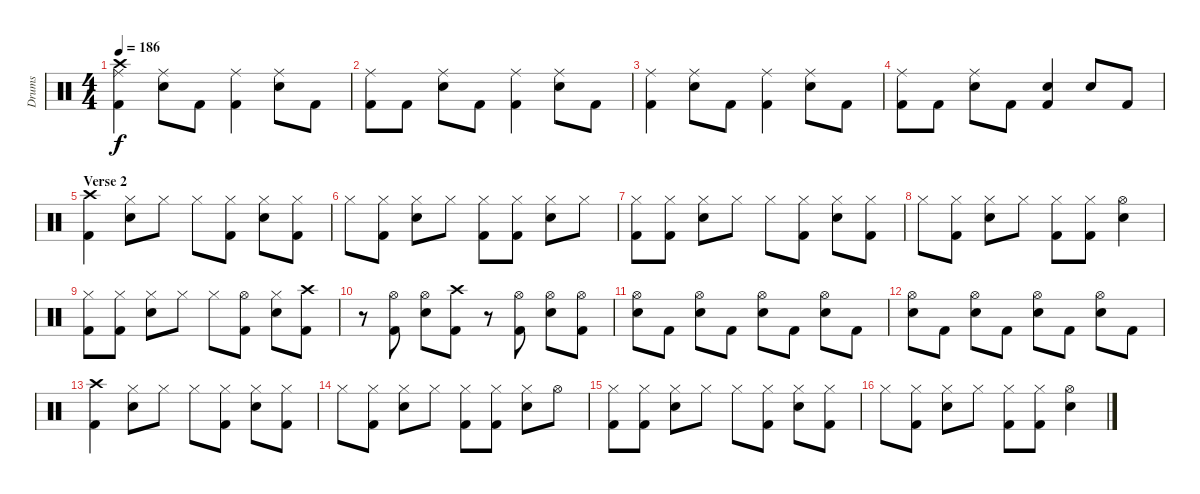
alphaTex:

\track ("Drums" "Drums") {instrument percussion}
\staff {score}
\articulation defaults
\ts (4 4)
\tempo 186
\clef neutral
\ks c
("Crash high (hit)" "Ride (middle)" "Kick (hit) 2").4{dy f} ("Ride (middle)" "Snare (hit) 2").8 "Kick (hit) 2".8 ("Ride (middle)" "Kick (hit) 2").4 ("Ride (middle)" "Snare (hit) 2").8 "Kick (hit) 2".8 |
("Ride (middle)" "Kick (hit) 2").8 "Kick (hit) 2".8 ("Ride (middle)" "Snare (hit) 2").8 "Kick (hit) 2".8 ("Ride (middle)" "Kick (hit) 2").4 ("Ride (middle)" "Snare (hit) 2").8 "Kick (hit) 2".8 |
("Ride (middle)" "Kick (hit) 2").4 ("Ride (middle)" "Snare (hit) 2").8 "Kick (hit) 2".8 ("Ride (middle)" "Kick (hit) 2").4 ("Ride (middle)" "Snare (hit) 2").8 "Kick (hit) 2".8 |
("Ride (middle)" "Kick (hit) 2").8 "Kick (hit) 2".8 ("Ride (middle)" "Snare (hit) 2").8 "Kick (hit) 2".8 ("Snare (hit) 2" "Kick (hit) 2").4 "Snare (hit) 2".8 "Kick (hit) 2".8 |
\section ("" "Verse 2")
("Crash high (hit)" "Kick (hit) 2").4 ("Hi-Hat (closed)" "Snare (hit) 2").8 "Hi-Hat (closed)".8 "Hi-Hat (closed)".8 ("Hi-Hat (closed)" "Kick (hit) 2").8 ("Hi-Hat (closed)" "Snare (hit) 2").8 ("Hi-Hat (closed)" "Kick (hit) 2").8 |
"Hi-Hat (closed)".8 ("Hi-Hat (closed)" "Kick (hit) 2").8 ("Hi-Hat (closed)" "Snare (hit) 2").8 "Hi-Hat (closed)".8 ("Hi-Hat (closed)" "Kick (hit) 2").8 ("Hi-Hat (closed)" "Kick (hit) 2").8 ("Hi-Hat (closed)" "Snare (hit) 2").8 "Hi-Hat (closed)".8 |
("Hi-Hat (closed)" "Kick (hit) 2").8 ("Hi-Hat (closed)" "Kick (hit) 2").8 ("Hi-Hat (closed)" "Snare (hit) 2").8 "Hi-Hat (closed)".8 "Hi-Hat (closed)".8 ("Hi-Hat (closed)" "Kick (hit) 2").8 ("Hi-Hat (closed)" "Snare (hit) 2").8 ("Hi-Hat (closed)" "Kick (hit) 2").8 |
"Hi-Hat (closed)".8 ("Hi-Hat (closed)" "Kick (hit) 2").8 ("Hi-Hat (closed)" "Snare (hit) 2").8 "Hi-Hat (closed)".8 ("Hi-Hat (closed)" "Kick (hit) 2").8 ("Hi-Hat (closed)" "Kick (hit) 2").8 ("Hi-Hat (open)" "Snare (hit) 2").4 |
("Hi-Hat (closed)" "Kick (hit) 2").8 ("Hi-Hat (closed)" "Kick (hit) 2").8 ("Hi-Hat (closed)" "Snare (hit) 2").8 "Hi-Hat (closed)".8 "Hi-Hat (closed)".8 ("Hi-Hat (open)" "Kick (hit) 2").8 ("Hi-Hat (closed)" "Snare (hit) 2").8 ("Crash high (hit)" "Kick (hit) 2").8 |
r.8 ("Hi-Hat (open)" "Kick (hit) 2").8 ("Hi-Hat (open)" "Snare (hit) 2").8 ("Crash high (hit)" "Kick (hit) 2").8 r.8 ("Hi-Hat (open)" "Kick (hit) 2").8 ("Hi-Hat (open)" "Snare (hit) 2").8 ("Hi-Hat (open)" "Kick (hit) 2").8 |
("Hi-Hat (open)" "Snare (hit) 2").8 "Kick (hit) 2".8 ("Hi-Hat (open)" "Snare (hit) 2").8 "Kick (hit) 2".8 ("Hi-Hat (open)" "Snare (hit) 2").8 "Kick (hit) 2".8 ("Hi-Hat (open)" "Snare (hit) 2").8 "Kick (hit) 2".8 |
("Hi-Hat (open)" "Snare (hit) 2").8 "Kick (hit) 2".8 ("Hi-Hat (open)" "Snare (hit) 2").8 "Kick (hit) 2".8 ("Hi-Hat (open)" "Snare (hit) 2").8 "Kick (hit) 2".8 ("Hi-Hat (open)" "Snare (hit) 2").8 "Kick (hit) 2".8 |
("Crash high (hit)" "Kick (hit) 2").4 ("Hi-Hat (closed)" "Snare (hit) 2").8 "Hi-Hat (closed)".8 "Hi-Hat (closed)".8 ("Hi-Hat (closed)" "Kick (hit) 2").8 ("Hi-Hat (closed)" "Snare (hit) 2").8 ("Hi-Hat (closed)" "Kick (hit) 2").8 |
"Hi-Hat (closed)".8 ("Hi-Hat (closed)" "Kick (hit) 2").8 ("Hi-Hat (closed)" "Snare (hit) 2").8 "Hi-Hat (closed)".8 ("Hi-Hat (closed)" "Kick (hit) 2").8 ("Hi-Hat (closed)" "Kick (hit) 2").8 ("Hi-Hat (closed)" "Snare (hit) 2").8 "Hi-Hat (open)".8 |
("Hi-Hat (closed)" "Kick (hit) 2").8 ("Hi-Hat (closed)" "Kick (hit) 2").8 ("Hi-Hat (closed)" "Snare (hit) 2").8 "Hi-Hat (closed)".8 "Hi-Hat (closed)".8 ("Hi-Hat (closed)" "Kick (hit) 2").8 ("Hi-Hat (closed)" "Snare (hit) 2").8 ("Hi-Hat (closed)" "Kick (hit) 2").8 |
"Hi-Hat (closed)".8 ("Hi-Hat (closed)" "Kick (hit) 2").8 ("Hi-Hat (closed)" "Snare (hit) 2").8 "Hi-Hat (closed)".8 ("Hi-Hat (closed)" "Kick (hit) 2").8 ("Hi-Hat (closed)" "Kick (hit) 2").8 ("Hi-Hat (open)" "Snare (hit) 2").4
